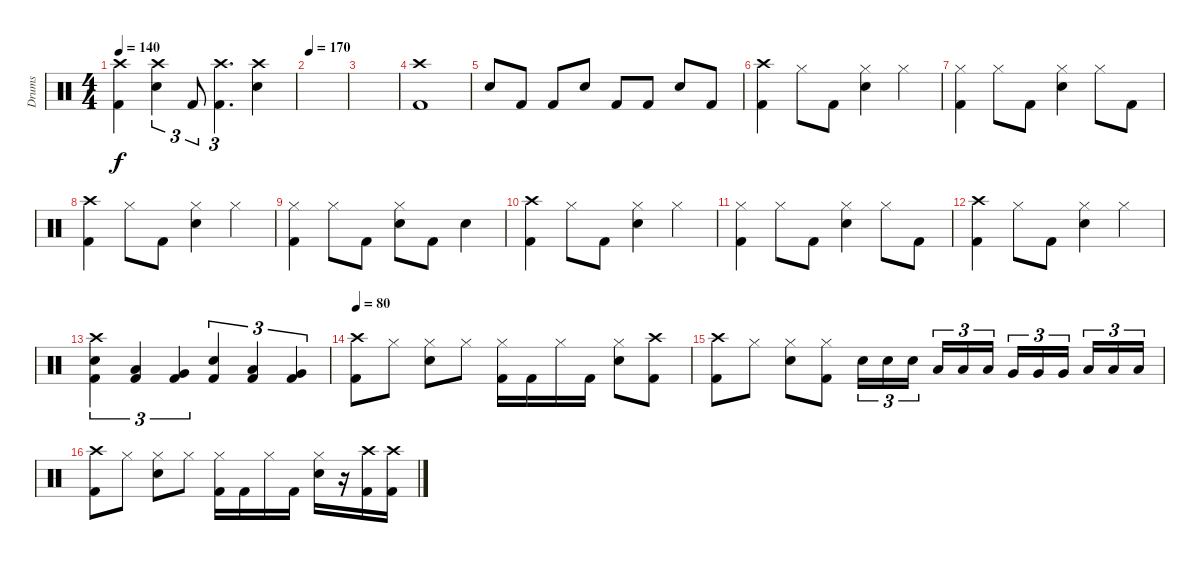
\track ("Drums" "Drums") {instrument percussion}
\staff {score}
\articulation defaults
\ts (4 4)
\tempo 140
\clef neutral
\ks c
("Crash high (hit)" "Kick (hit) 2").4{dy f} ("Crash high (hit)" "Snare (hit) 2").4{tu (3 2)} "Kick (hit) 2".8{tu (3 2)} ("Crash high (hit)" "Kick (hit) 2").4{d tu (3 2)} ("Crash high (hit)" "Snare (hit) 2").4 |
\tempo 170
|
|
("Kick (hit) 2" "Crash high (hit)").1 |
"Snare (hit) 2".8 "Kick (hit) 2".8 "Kick (hit) 2".8 "Snare (hit) 2".8 "Kick (hit) 2".8 "Kick (hit) 2".8 "Snare (hit) 2".8 "Kick (hit) 2".8 |
("Crash high (hit)" "Kick (hit) 2").4 "Hi-Hat (closed)".8 "Kick (hit) 2".8 ("Hi-Hat (closed)" "Snare (hit) 2").4 "Hi-Hat (closed)".4 |
("Hi-Hat (closed)" "Kick (hit) 2").4 "Hi-Hat (closed)".8 "Kick (hit) 2".8 ("Hi-Hat (closed)" "Snare (hit) 2").4 "Hi-Hat (closed)".8 "Kick (hit) 2".8 |
("Crash high (hit)" "Kick (hit) 2").4 "Hi-Hat (closed)".8 "Kick (hit) 2".8 ("Hi-Hat (closed)" "Snare (hit) 2").4 "Hi-Hat (closed)".4 |
("Hi-Hat (closed)" "Kick (hit) 2").4 "Hi-Hat (closed)".8 "Kick (hit) 2".8 ("Hi-Hat (closed)" "Snare (hit) 2").8 "Kick (hit) 2".8 "Snare (hit) 2".4 |
("Crash high (hit)" "Kick (hit) 2").4 "Hi-Hat (closed)".8 "Kick (hit) 2".8 ("Hi-Hat (closed)" "Snare (hit) 2").4 "Hi-Hat (closed)".4 |
("Hi-Hat (closed)" "Kick (hit) 2").4 "Hi-Hat (closed)".8 "Kick (hit) 2".8 ("Hi-Hat (closed)" "Snare (hit) 2").4 "Hi-Hat (closed)".8 "Kick (hit) 2".8 |
("Crash high (hit)" "Kick (hit) 2").4 "Hi-Hat (closed)".8 "Kick (hit) 2".8 ("Hi-Hat (closed)" "Snare (hit) 2").4 "Hi-Hat (closed)".4 |
("Snare (hit) 2" "Kick (hit) 2" "Crash high (hit)").4{tu (3 2)} ("Low Tom (hit)" "Kick (hit) 2").4{tu (3 2)} ("Very Low Tom (hit)" "Kick (hit) 2").4{tu (3 2)} ("Snare (hit) 2" "Kick (hit) 2").4{tu (3 2)} ("Low Tom (hit)" "Kick (hit) 2").4{tu (3 2)} ("Very Low Tom (hit)" "Kick (hit) 2").4{tu (3 2)} |
\tempo 80
("Crash high (hit)" "Kick (hit) 2").8 "Hi-Hat (closed)".8 ("Hi-Hat (closed)" "Snare (hit) 2").8 "Hi-Hat (closed)".8 ("Hi-Hat (closed)" "Kick (hit) 2").16 "Kick (hit) 2".16 "Hi-Hat (closed)".16 "Kick (hit) 2".16 ("Hi-Hat (closed)" "Snare (hit) 2").8 ("Crash high (hit)" "Kick (hit) 2").8 |
("Crash high (hit)" "Kick (hit) 2").8 "Hi-Hat (closed)".8 ("Hi-Hat (closed)" "Snare (hit) 2").8 ("Hi-Hat (closed)" "Kick (hit) 2").8 "Snare (hit) 2".16{tu (3 2)} "Snare (hit) 2".16{tu (3 2)} "Snare (hit) 2".16{tu (3 2) beam splitsecondary} "Low Tom (hit)".16{tu (3 2)} "Low Tom (hit)".16{tu (3 2)} "Low Tom (hit)".16{tu (3 2)} "Very Low Tom (hit)".16{tu (3 2)} "Very Low Tom (hit)".16{tu (3 2)} "Very Low Tom (hit)".16{tu (3 2) beam splitsecondary} "Low Floor Tom (hit)".16{tu (3 2)} "Low Floor Tom (hit)".16{tu (3 2)} "Low Floor Tom (hit)".16{tu (3 2)} |
("Crash high (hit)" "Kick (hit) 2").8 "Hi-Hat (closed)".8 ("Hi-Hat (closed)" "Snare (hit) 2").8 "Hi-Hat (closed)".8 ("Hi-Hat (closed)" "Kick (hit) 2").16 "Kick (hit) 2".16 "Hi-Hat (closed)".16 "Kick (hit) 2".16 ("Hi-Hat (closed)" "Snare (hit) 2").16 r.16 ("Crash high (hit)" "Kick (hit) 2").16 ("Crash high (hit)" "Kick (hit) 2").16
